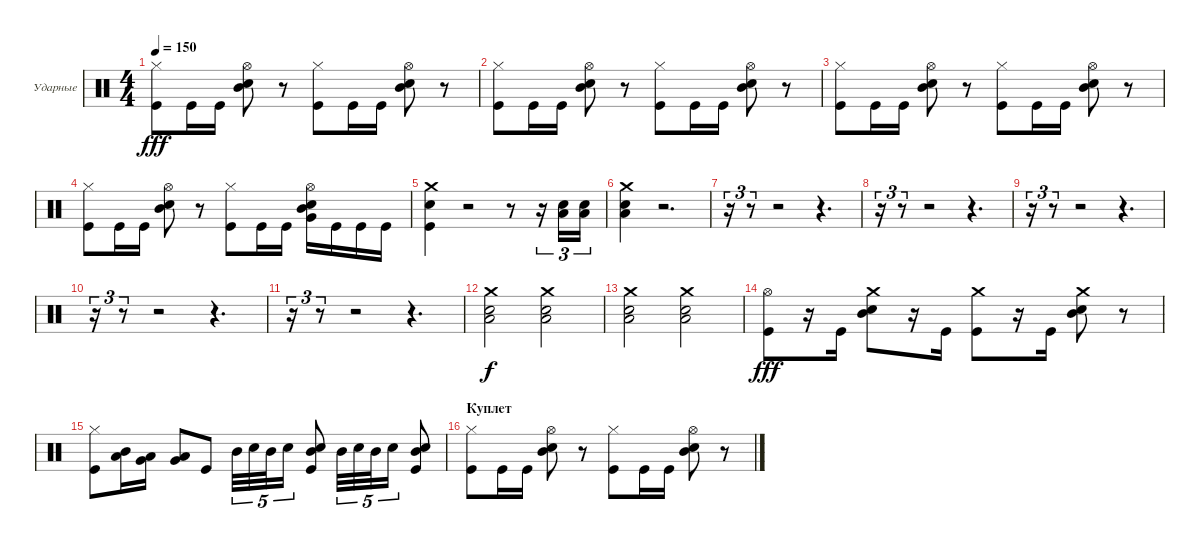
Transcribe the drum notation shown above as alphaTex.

\bracketExtendMode groupsimilarinstruments
\firstSystemTrackNameOrientation horizontal
\otherSystemsTrackNameOrientation horizontal
\track ("Максим Удалов" "Ударные") {instrument percussion}
\staff {score}
\articulation defaults
\ts (4 4)
\tempo 150
\clef neutral
\ks c
("Hi-Hat (closed)" "Kick (hit)").8{dy fff} "Kick (hit)".16 "Kick (hit)".16 ("Hi-Hat (open)" "Mid Tom (hit)" "Snare (hit) 2").8 r.8 ("Hi-Hat (closed)" "Kick (hit)").8 "Kick (hit)".16 "Kick (hit)".16 ("Hi-Hat (open)" "Mid Tom (hit)" "Snare (hit) 2").8 r.8 |
("Hi-Hat (closed)" "Kick (hit)").8 "Kick (hit)".16 "Kick (hit)".16 ("Hi-Hat (open)" "Mid Tom (hit)" "Snare (hit) 2").8 r.8 ("Hi-Hat (closed)" "Kick (hit)").8 "Kick (hit)".16 "Kick (hit)".16 ("Hi-Hat (open)" "Mid Tom (hit)" "Snare (hit) 2").8 r.8 |
("Hi-Hat (closed)" "Kick (hit)").8 "Kick (hit)".16 "Kick (hit)".16 ("Hi-Hat (open)" "Mid Tom (hit)" "Snare (hit) 2").8 r.8 ("Hi-Hat (closed)" "Kick (hit)").8 "Kick (hit)".16 "Kick (hit)".16 ("Hi-Hat (open)" "Mid Tom (hit)" "Snare (hit) 2").8 r.8 |
("Hi-Hat (closed)" "Kick (hit)").8 "Kick (hit)".16 "Kick (hit)".16 ("Hi-Hat (open)" "Mid Tom (hit)" "Snare (hit) 2").8 r.8 ("Hi-Hat (closed)" "Kick (hit)").8 "Kick (hit)".16 "Kick (hit)".16 ("Very Low Tom (hit)" "Hi-Hat (open)" "Mid Tom (hit)" "Snare (hit) 2").16 "Kick (hit)".16 "Kick (hit)".16 "Kick (hit)".16 |
("Crash medium (hit)" "Snare (hit) 2" "Kick (hit)").4 r.2 r.8 r.16{tu (3 2)} ("Snare (hit) 2" "Low Tom (hit)").16{tu (3 2)} ("Snare (hit) 2" "Low Tom (hit)").16{tu (3 2)} |
("Crash medium (hit)" "Low Tom (hit)" "Snare (hit) 2").4 r.2{d} |
r.16{tu (3 2)} r.8{tu (3 2)} r.2 r.4{d} |
r.16{tu (3 2)} r.8{tu (3 2)} r.2 r.4{d} |
r.16{tu (3 2)} r.8{tu (3 2)} r.2 r.4{d} |
r.16{tu (3 2)} r.8{tu (3 2)} r.2 r.4{d} |
r.16{tu (3 2)} r.8{tu (3 2)} r.2 r.4{d} |
("Crash medium (hit)" "Low Tom (hit)" "Snare (hit) 2").2{dy f} ("Crash medium (hit)" "Low Tom (hit)" "Snare (hit) 2").2 |
("Crash medium (hit)" "Low Tom (hit)" "Snare (hit) 2").2 ("Crash medium (hit)" "Low Tom (hit)" "Snare (hit) 2").2 |
\section ("" "")
("Kick (hit)" "Hi-Hat (open)").8{dy fff} r.16 "Kick (hit)".16 ("Mid Tom (hit)" "Snare (hit) 2" "Crash medium (hit)").8 r.16 "Kick (hit)".16 ("Kick (hit)" "Crash medium (hit)").8 r.16 "Kick (hit)".16 ("Mid Tom (hit)" "Snare (hit) 2" "Crash medium (hit)").8 r.8 |
("Hi-Hat (closed)" "Kick (hit)").8 ("Mid Tom (hit)" "Low Tom (hit)").16 ("Low Tom (hit)" "Very Low Tom (hit)").16 ("Low Tom (hit)" "Very Low Tom (hit)").8 "Kick (hit)".8 "Mid Tom (hit)".32{tu (5 4)} "Snare (hit) 2".32{tu (5 4)} "Mid Tom (hit)".32{tu (5 4)} "Snare (hit) 2".16{tu (5 4)} ("Kick (hit)" "Mid Tom (hit)" "Snare (hit) 2").8 "Mid Tom (hit)".32{tu (5 4)} "Snare (hit) 2".32{tu (5 4)} "Mid Tom (hit)".32{tu (5 4)} "Snare (hit) 2".16{tu (5 4)} ("Mid Tom (hit)" "Kick (hit)" "Snare (hit) 2").8 |
\section ("" "Куплет")
("Hi-Hat (closed)" "Kick (hit)").8 "Kick (hit)".16 "Kick (hit)".16 ("Hi-Hat (open)" "Mid Tom (hit)" "Snare (hit) 2").8 r.8 ("Hi-Hat (closed)" "Kick (hit)").8 "Kick (hit)".16 "Kick (hit)".16 ("Hi-Hat (open)" "Mid Tom (hit)" "Snare (hit) 2").8 r.8
